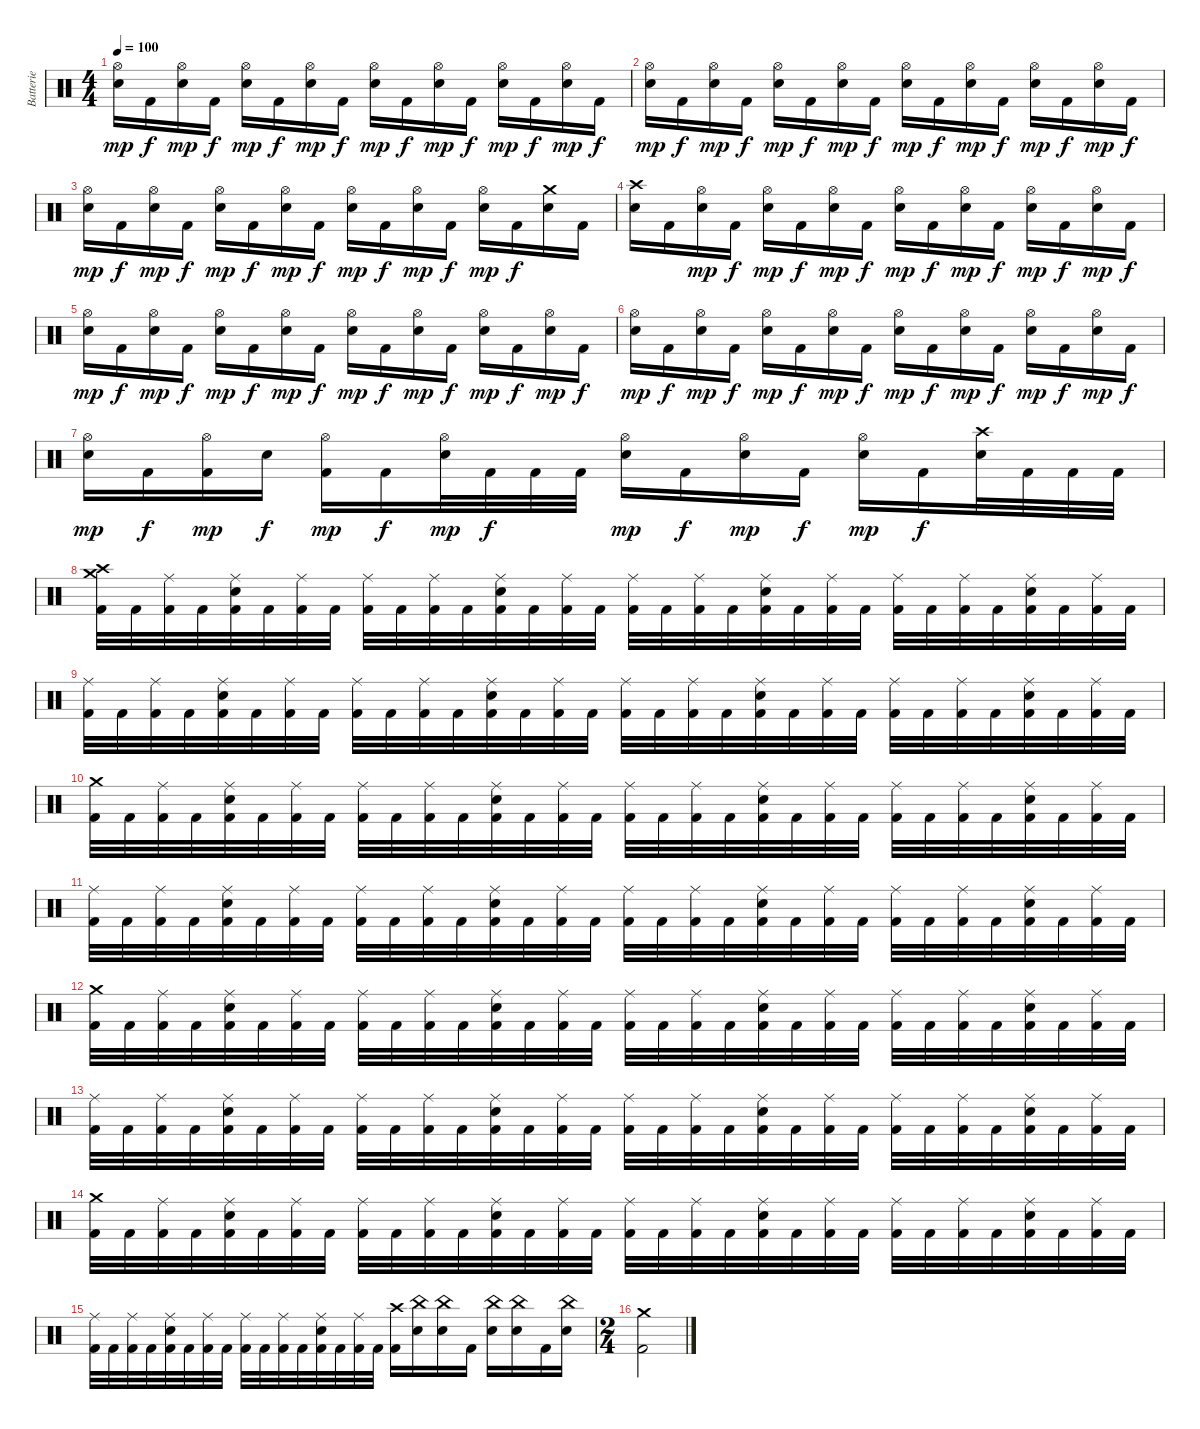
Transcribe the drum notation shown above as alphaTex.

\track ("Batterie" "Batterie") {instrument percussion}
\staff {score}
\articulation defaults
\ts (4 4)
\tempo 100
\clef neutral
\ks c
("Hi-Hat (open)" "Electric Snare (hit)").16{dy mp} "Kick (hit) 2".16{dy f} ("Hi-Hat (open)" "Electric Snare (hit)").16{dy mp} "Kick (hit) 2".16{dy f} ("Hi-Hat (open)" "Electric Snare (hit)").16{dy mp} "Kick (hit) 2".16{dy f} ("Hi-Hat (open)" "Electric Snare (hit)").16{dy mp} "Kick (hit) 2".16{dy f} ("Hi-Hat (open)" "Electric Snare (hit)").16{dy mp} "Kick (hit) 2".16{dy f} ("Hi-Hat (open)" "Electric Snare (hit)").16{dy mp} "Kick (hit) 2".16{dy f} ("Hi-Hat (open)" "Electric Snare (hit)").16{dy mp} "Kick (hit) 2".16{dy f} ("Hi-Hat (open)" "Electric Snare (hit)").16{dy mp} "Kick (hit) 2".16{dy f} |
("Hi-Hat (open)" "Electric Snare (hit)").16{dy mp} "Kick (hit) 2".16{dy f} ("Hi-Hat (open)" "Electric Snare (hit)").16{dy mp} "Kick (hit) 2".16{dy f} ("Hi-Hat (open)" "Electric Snare (hit)").16{dy mp} "Kick (hit) 2".16{dy f} ("Hi-Hat (open)" "Electric Snare (hit)").16{dy mp} "Kick (hit) 2".16{dy f} ("Hi-Hat (open)" "Electric Snare (hit)").16{dy mp} "Kick (hit) 2".16{dy f} ("Hi-Hat (open)" "Electric Snare (hit)").16{dy mp} "Kick (hit) 2".16{dy f} ("Hi-Hat (open)" "Electric Snare (hit)").16{dy mp} "Kick (hit) 2".16{dy f} ("Hi-Hat (open)" "Electric Snare (hit)").16{dy mp} "Kick (hit) 2".16{dy f} |
("Hi-Hat (open)" "Electric Snare (hit)").16{dy mp} "Kick (hit) 2".16{dy f} ("Hi-Hat (open)" "Electric Snare (hit)").16{dy mp} "Kick (hit) 2".16{dy f} ("Hi-Hat (open)" "Electric Snare (hit)").16{dy mp} "Kick (hit) 2".16{dy f} ("Hi-Hat (open)" "Electric Snare (hit)").16{dy mp} "Kick (hit) 2".16{dy f} ("Hi-Hat (open)" "Electric Snare (hit)").16{dy mp} "Kick (hit) 2".16{dy f} ("Hi-Hat (open)" "Electric Snare (hit)").16{dy mp} "Kick (hit) 2".16{dy f} ("Hi-Hat (open)" "Electric Snare (hit)").16{dy mp} "Kick (hit) 2".16{dy f} ("Crash medium (hit)" "Electric Snare (hit)").16 "Kick (hit) 2".16 |
("Crash high (hit)" "Electric Snare (hit)").16 "Kick (hit) 2".16 ("Hi-Hat (open)" "Electric Snare (hit)").16{dy mp} "Kick (hit) 2".16{dy f} ("Hi-Hat (open)" "Electric Snare (hit)").16{dy mp} "Kick (hit) 2".16{dy f} ("Hi-Hat (open)" "Electric Snare (hit)").16{dy mp} "Kick (hit) 2".16{dy f} ("Hi-Hat (open)" "Electric Snare (hit)").16{dy mp} "Kick (hit) 2".16{dy f} ("Hi-Hat (open)" "Electric Snare (hit)").16{dy mp} "Kick (hit) 2".16{dy f} ("Hi-Hat (open)" "Electric Snare (hit)").16{dy mp} "Kick (hit) 2".16{dy f} ("Hi-Hat (open)" "Electric Snare (hit)").16{dy mp} "Kick (hit) 2".16{dy f} |
("Hi-Hat (open)" "Electric Snare (hit)").16{dy mp} "Kick (hit) 2".16{dy f} ("Hi-Hat (open)" "Electric Snare (hit)").16{dy mp} "Kick (hit) 2".16{dy f} ("Hi-Hat (open)" "Electric Snare (hit)").16{dy mp} "Kick (hit) 2".16{dy f} ("Hi-Hat (open)" "Electric Snare (hit)").16{dy mp} "Kick (hit) 2".16{dy f} ("Hi-Hat (open)" "Electric Snare (hit)").16{dy mp} "Kick (hit) 2".16{dy f} ("Hi-Hat (open)" "Electric Snare (hit)").16{dy mp} "Kick (hit) 2".16{dy f} ("Hi-Hat (open)" "Electric Snare (hit)").16{dy mp} "Kick (hit) 2".16{dy f} ("Hi-Hat (open)" "Electric Snare (hit)").16{dy mp} "Kick (hit) 2".16{dy f} |
("Hi-Hat (open)" "Electric Snare (hit)").16{dy mp} "Kick (hit) 2".16{dy f} ("Hi-Hat (open)" "Electric Snare (hit)").16{dy mp} "Kick (hit) 2".16{dy f} ("Hi-Hat (open)" "Electric Snare (hit)").16{dy mp} "Kick (hit) 2".16{dy f} ("Hi-Hat (open)" "Electric Snare (hit)").16{dy mp} "Kick (hit) 2".16{dy f} ("Hi-Hat (open)" "Electric Snare (hit)").16{dy mp} "Kick (hit) 2".16{dy f} ("Hi-Hat (open)" "Electric Snare (hit)").16{dy mp} "Kick (hit) 2".16{dy f} ("Hi-Hat (open)" "Electric Snare (hit)").16{dy mp} "Kick (hit) 2".16{dy f} ("Hi-Hat (open)" "Electric Snare (hit)").16{dy mp} "Kick (hit) 2".16{dy f} |
("Hi-Hat (open)" "Electric Snare (hit)").16{dy mp} "Kick (hit) 2".16{dy f} ("Hi-Hat (open)" "Kick (hit) 2").16{dy mp} "Electric Snare (hit)".16{dy f} ("Hi-Hat (open)" "Kick (hit) 2").16{dy mp} "Kick (hit) 2".16{dy f} ("Hi-Hat (open)" "Electric Snare (hit)").32{dy mp} "Kick (hit) 2".32{dy f} "Kick (hit) 2".32 "Kick (hit) 2".32 ("Hi-Hat (open)" "Electric Snare (hit)").16{dy mp} "Kick (hit) 2".16{dy f} ("Hi-Hat (open)" "Electric Snare (hit)").16{dy mp} "Kick (hit) 2".16{dy f} ("Hi-Hat (open)" "Electric Snare (hit)").16{dy mp} "Kick (hit) 2".16{dy f} ("Crash high (hit)" "Electric Snare (hit)").32 "Kick (hit) 2".32 "Kick (hit) 2".32 "Kick (hit) 2".32 |
("Crash high (hit)" "Crash medium (hit)" "Kick (hit) 2").32 "Kick (hit) 2".32 ("Ride (middle)" "Kick (hit) 2").32 "Kick (hit) 2".32 ("Ride (middle)" "Electric Snare (hit)" "Kick (hit) 2").32 "Kick (hit) 2".32 ("Ride (middle)" "Kick (hit) 2").32 "Kick (hit) 2".32 ("Ride (middle)" "Kick (hit) 2").32 "Kick (hit) 2".32 ("Ride (middle)" "Kick (hit) 2").32 "Kick (hit) 2".32 ("Ride (middle)" "Electric Snare (hit)" "Kick (hit) 2").32 "Kick (hit) 2".32 ("Ride (middle)" "Kick (hit) 2").32 "Kick (hit) 2".32 ("Ride (middle)" "Kick (hit) 2").32 "Kick (hit) 2".32 ("Ride (middle)" "Kick (hit) 2").32 "Kick (hit) 2".32 ("Ride (middle)" "Electric Snare (hit)" "Kick (hit) 2").32 "Kick (hit) 2".32 ("Ride (middle)" "Kick (hit) 2").32 "Kick (hit) 2".32 ("Ride (middle)" "Kick (hit) 2").32 "Kick (hit) 2".32 ("Ride (middle)" "Kick (hit) 2").32 "Kick (hit) 2".32 ("Ride (middle)" "Electric Snare (hit)" "Kick (hit) 2").32 "Kick (hit) 2".32 ("Ride (middle)" "Kick (hit) 2").32 "Kick (hit) 2".32 |
("Ride (middle)" "Kick (hit) 2").32 "Kick (hit) 2".32 ("Ride (middle)" "Kick (hit) 2").32 "Kick (hit) 2".32 ("Ride (middle)" "Electric Snare (hit)" "Kick (hit) 2").32 "Kick (hit) 2".32 ("Ride (middle)" "Kick (hit) 2").32 "Kick (hit) 2".32 ("Ride (middle)" "Kick (hit) 2").32 "Kick (hit) 2".32 ("Ride (middle)" "Kick (hit) 2").32 "Kick (hit) 2".32 ("Ride (middle)" "Electric Snare (hit)" "Kick (hit) 2").32 "Kick (hit) 2".32 ("Ride (middle)" "Kick (hit) 2").32 "Kick (hit) 2".32 ("Ride (middle)" "Kick (hit) 2").32 "Kick (hit) 2".32 ("Ride (middle)" "Kick (hit) 2").32 "Kick (hit) 2".32 ("Ride (middle)" "Electric Snare (hit)" "Kick (hit) 2").32 "Kick (hit) 2".32 ("Ride (middle)" "Kick (hit) 2").32 "Kick (hit) 2".32 ("Ride (middle)" "Kick (hit) 2").32 "Kick (hit) 2".32 ("Ride (middle)" "Kick (hit) 2").32 "Kick (hit) 2".32 ("Ride (middle)" "Electric Snare (hit)" "Kick (hit) 2").32 "Kick (hit) 2".32 ("Ride (middle)" "Kick (hit) 2").32 "Kick (hit) 2".32 |
("Crash medium (hit)" "Kick (hit) 2").32 "Kick (hit) 2".32 ("Ride (middle)" "Kick (hit) 2").32 "Kick (hit) 2".32 ("Ride (middle)" "Electric Snare (hit)" "Kick (hit) 2").32 "Kick (hit) 2".32 ("Ride (middle)" "Kick (hit) 2").32 "Kick (hit) 2".32 ("Ride (middle)" "Kick (hit) 2").32 "Kick (hit) 2".32 ("Ride (middle)" "Kick (hit) 2").32 "Kick (hit) 2".32 ("Ride (middle)" "Electric Snare (hit)" "Kick (hit) 2").32 "Kick (hit) 2".32 ("Ride (middle)" "Kick (hit) 2").32 "Kick (hit) 2".32 ("Ride (middle)" "Kick (hit) 2").32 "Kick (hit) 2".32 ("Ride (middle)" "Kick (hit) 2").32 "Kick (hit) 2".32 ("Ride (middle)" "Electric Snare (hit)" "Kick (hit) 2").32 "Kick (hit) 2".32 ("Ride (middle)" "Kick (hit) 2").32 "Kick (hit) 2".32 ("Ride (middle)" "Kick (hit) 2").32 "Kick (hit) 2".32 ("Ride (middle)" "Kick (hit) 2").32 "Kick (hit) 2".32 ("Ride (middle)" "Electric Snare (hit)" "Kick (hit) 2").32 "Kick (hit) 2".32 ("Ride (middle)" "Kick (hit) 2").32 "Kick (hit) 2".32 |
("Ride (middle)" "Kick (hit) 2").32 "Kick (hit) 2".32 ("Ride (middle)" "Kick (hit) 2").32 "Kick (hit) 2".32 ("Ride (middle)" "Electric Snare (hit)" "Kick (hit) 2").32 "Kick (hit) 2".32 ("Ride (middle)" "Kick (hit) 2").32 "Kick (hit) 2".32 ("Ride (middle)" "Kick (hit) 2").32 "Kick (hit) 2".32 ("Ride (middle)" "Kick (hit) 2").32 "Kick (hit) 2".32 ("Ride (middle)" "Electric Snare (hit)" "Kick (hit) 2").32 "Kick (hit) 2".32 ("Ride (middle)" "Kick (hit) 2").32 "Kick (hit) 2".32 ("Ride (middle)" "Kick (hit) 2").32 "Kick (hit) 2".32 ("Ride (middle)" "Kick (hit) 2").32 "Kick (hit) 2".32 ("Ride (middle)" "Electric Snare (hit)" "Kick (hit) 2").32 "Kick (hit) 2".32 ("Ride (middle)" "Kick (hit) 2").32 "Kick (hit) 2".32 ("Ride (middle)" "Kick (hit) 2").32 "Kick (hit) 2".32 ("Ride (middle)" "Kick (hit) 2").32 "Kick (hit) 2".32 ("Ride (middle)" "Electric Snare (hit)" "Kick (hit) 2").32 "Kick (hit) 2".32 ("Ride (middle)" "Kick (hit) 2").32 "Kick (hit) 2".32 |
("Crash medium (hit)" "Kick (hit) 2").32 "Kick (hit) 2".32 ("Ride (middle)" "Kick (hit) 2").32 "Kick (hit) 2".32 ("Ride (middle)" "Electric Snare (hit)" "Kick (hit) 2").32 "Kick (hit) 2".32 ("Ride (middle)" "Kick (hit) 2").32 "Kick (hit) 2".32 ("Ride (middle)" "Kick (hit) 2").32 "Kick (hit) 2".32 ("Ride (middle)" "Kick (hit) 2").32 "Kick (hit) 2".32 ("Ride (middle)" "Electric Snare (hit)" "Kick (hit) 2").32 "Kick (hit) 2".32 ("Ride (middle)" "Kick (hit) 2").32 "Kick (hit) 2".32 ("Ride (middle)" "Kick (hit) 2").32 "Kick (hit) 2".32 ("Ride (middle)" "Kick (hit) 2").32 "Kick (hit) 2".32 ("Ride (middle)" "Electric Snare (hit)" "Kick (hit) 2").32 "Kick (hit) 2".32 ("Ride (middle)" "Kick (hit) 2").32 "Kick (hit) 2".32 ("Ride (middle)" "Kick (hit) 2").32 "Kick (hit) 2".32 ("Ride (middle)" "Kick (hit) 2").32 "Kick (hit) 2".32 ("Ride (middle)" "Electric Snare (hit)" "Kick (hit) 2").32 "Kick (hit) 2".32 ("Ride (middle)" "Kick (hit) 2").32 "Kick (hit) 2".32 |
("Ride (middle)" "Kick (hit) 2").32 "Kick (hit) 2".32 ("Ride (middle)" "Kick (hit) 2").32 "Kick (hit) 2".32 ("Ride (middle)" "Electric Snare (hit)" "Kick (hit) 2").32 "Kick (hit) 2".32 ("Ride (middle)" "Kick (hit) 2").32 "Kick (hit) 2".32 ("Ride (middle)" "Kick (hit) 2").32 "Kick (hit) 2".32 ("Ride (middle)" "Kick (hit) 2").32 "Kick (hit) 2".32 ("Ride (middle)" "Electric Snare (hit)" "Kick (hit) 2").32 "Kick (hit) 2".32 ("Ride (middle)" "Kick (hit) 2").32 "Kick (hit) 2".32 ("Ride (middle)" "Kick (hit) 2").32 "Kick (hit) 2".32 ("Ride (middle)" "Kick (hit) 2").32 "Kick (hit) 2".32 ("Ride (middle)" "Electric Snare (hit)" "Kick (hit) 2").32 "Kick (hit) 2".32 ("Ride (middle)" "Kick (hit) 2").32 "Kick (hit) 2".32 ("Ride (middle)" "Kick (hit) 2").32 "Kick (hit) 2".32 ("Ride (middle)" "Kick (hit) 2").32 "Kick (hit) 2".32 ("Ride (middle)" "Electric Snare (hit)" "Kick (hit) 2").32 "Kick (hit) 2".32 ("Ride (middle)" "Kick (hit) 2").32 "Kick (hit) 2".32 |
("Crash medium (hit)" "Kick (hit) 2").32 "Kick (hit) 2".32 ("Ride (middle)" "Kick (hit) 2").32 "Kick (hit) 2".32 ("Ride (middle)" "Electric Snare (hit)" "Kick (hit) 2").32 "Kick (hit) 2".32 ("Ride (middle)" "Kick (hit) 2").32 "Kick (hit) 2".32 ("Ride (middle)" "Kick (hit) 2").32 "Kick (hit) 2".32 ("Ride (middle)" "Kick (hit) 2").32 "Kick (hit) 2".32 ("Ride (middle)" "Electric Snare (hit)" "Kick (hit) 2").32 "Kick (hit) 2".32 ("Ride (middle)" "Kick (hit) 2").32 "Kick (hit) 2".32 ("Ride (middle)" "Kick (hit) 2").32 "Kick (hit) 2".32 ("Ride (middle)" "Kick (hit) 2").32 "Kick (hit) 2".32 ("Ride (middle)" "Electric Snare (hit)" "Kick (hit) 2").32 "Kick (hit) 2".32 ("Ride (middle)" "Kick (hit) 2").32 "Kick (hit) 2".32 ("Ride (middle)" "Kick (hit) 2").32 "Kick (hit) 2".32 ("Ride (middle)" "Kick (hit) 2").32 "Kick (hit) 2".32 ("Ride (middle)" "Electric Snare (hit)" "Kick (hit) 2").32 "Kick (hit) 2".32 ("Ride (middle)" "Kick (hit) 2").32 "Kick (hit) 2".32 |
("Ride (middle)" "Kick (hit) 2").32 "Kick (hit) 2".32 ("Ride (middle)" "Kick (hit) 2").32 "Kick (hit) 2".32 ("Ride (middle)" "Electric Snare (hit)" "Kick (hit) 2").32 "Kick (hit) 2".32 ("Ride (middle)" "Kick (hit) 2").32 "Kick (hit) 2".32 ("Ride (middle)" "Kick (hit) 2").32 "Kick (hit) 2".32 ("Ride (middle)" "Kick (hit) 2").32 "Kick (hit) 2".32 ("Ride (middle)" "Electric Snare (hit)" "Kick (hit) 2").32 "Kick (hit) 2".32 ("Ride (middle)" "Kick (hit) 2").32 "Kick (hit) 2".32 ("Crash high (hit)" "Kick (hit) 2").16 ("China (hit)" "Electric Snare (hit)").16 ("China (hit)" "Electric Snare (hit)").16 "Kick (hit) 2".16 ("China (hit)" "Electric Snare (hit)").16 ("China (hit)" "Electric Snare (hit)").16 "Kick (hit) 2".16 ("China (hit)" "Electric Snare (hit)").16 |
\ts (2 4)
("Crash medium (hit)" "Kick (hit) 2").2
